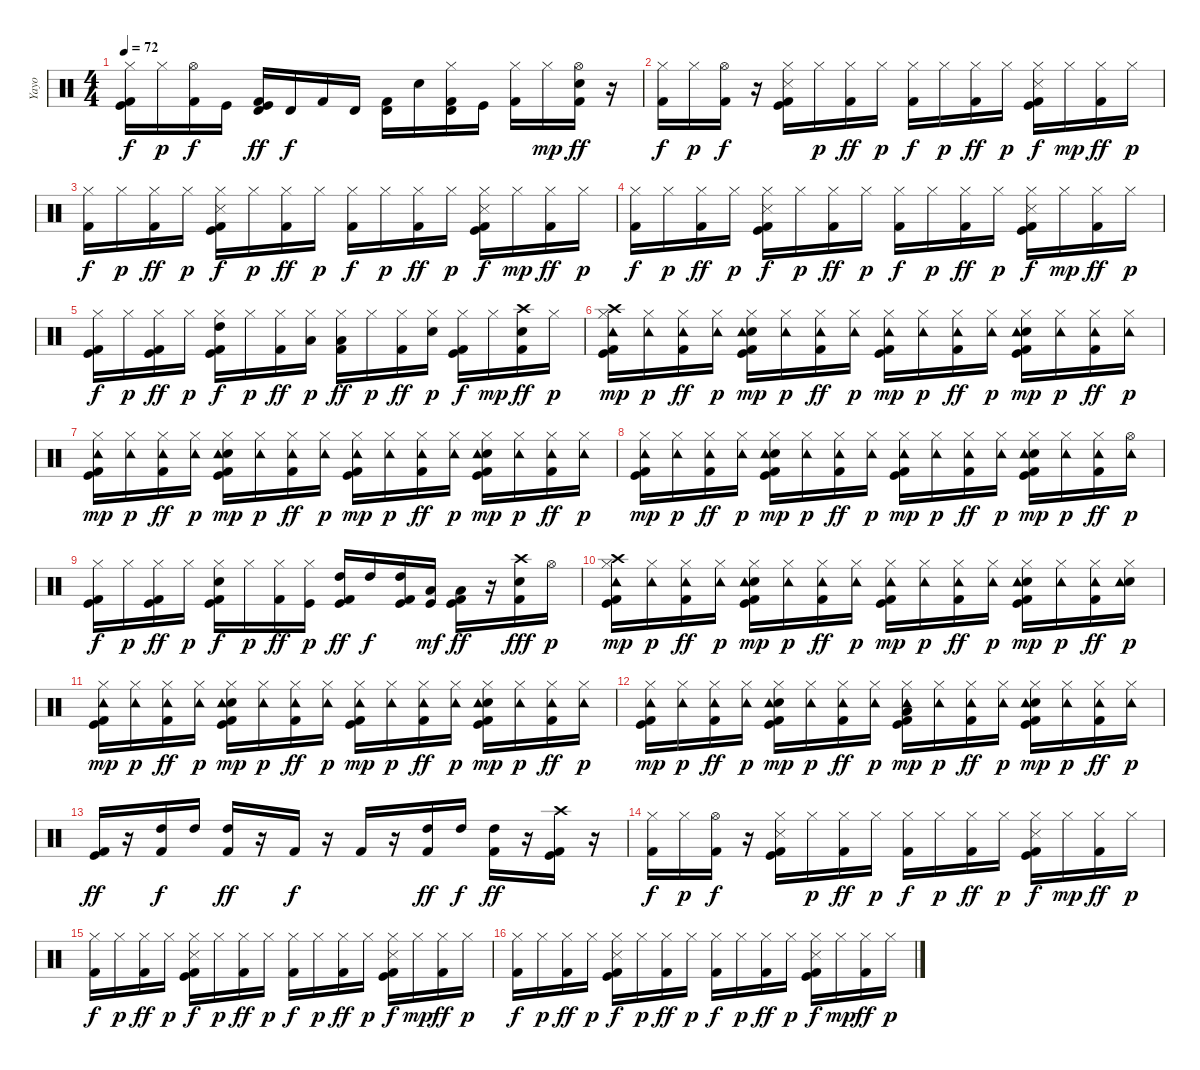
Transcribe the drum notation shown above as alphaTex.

\track ("Yayo" "Yayo") {instrument percussion}
\staff {score}
\articulation defaults
\ts (4 4)
\tempo 72
\clef neutral
\ks c
("Kick (hit)" "Hi-Hat (closed)" "Kick (hit) 2").16{dy f} "Hi-Hat (closed)".16{dy p} ("Hi-Hat (open)" "Kick (hit) 2").16{dy f} "Kick (hit)".16 ("Kick (hit)" "Timbale high (hit)" "Kick (hit) 2").16{dy ff} "Timbale high (hit)".16{dy f} "Kick (hit) 2".16 "Timbale high (hit)".16 ("Timbale high (hit)" "Kick (hit) 2").16 "Snare (hit) 2".16 ("Hi-Hat (closed)" "Timbale high (hit)" "Kick (hit) 2").16 "Kick (hit)".16 ("Hi-Hat (closed)" "Kick (hit) 2").16 "Hi-Hat (closed)".16{dy mp} ("Snare (hit) 2" "Hi-Hat (open)" "Kick (hit) 2").16{dy ff} r.16 |
("Hi-Hat (closed)" "Kick (hit) 2").16{dy f} "Hi-Hat (closed)".16{dy p} ("Hi-Hat (open)" "Kick (hit) 2").16{dy f} r.16 ("Kick (hit)" "Hi-Hat (closed)" "Snare (side stick) 3" "Kick (hit) 2").16 "Hi-Hat (closed)".16{dy p} ("Hi-Hat (closed)" "Kick (hit) 2").16{dy ff} "Hi-Hat (closed)".16{dy p} ("Hi-Hat (closed)" "Kick (hit) 2").16{dy f} "Hi-Hat (closed)".16{dy p} ("Hi-Hat (closed)" "Kick (hit) 2").16{dy ff} "Hi-Hat (closed)".16{dy p} ("Kick (hit)" "Hi-Hat (closed)" "Snare (side stick) 3" "Kick (hit) 2").16{dy f} "Hi-Hat (closed)".16{dy mp} ("Hi-Hat (closed)" "Kick (hit) 2").16{dy ff} "Hi-Hat (closed)".16{dy p} |
("Hi-Hat (closed)" "Kick (hit) 2").16{dy f} "Hi-Hat (closed)".16{dy p} ("Hi-Hat (closed)" "Kick (hit) 2").16{dy ff} "Hi-Hat (closed)".16{dy p} ("Kick (hit)" "Hi-Hat (closed)" "Snare (side stick) 3" "Kick (hit) 2").16{dy f} "Hi-Hat (closed)".16{dy p} ("Hi-Hat (closed)" "Kick (hit) 2").16{dy ff} "Hi-Hat (closed)".16{dy p} ("Hi-Hat (closed)" "Kick (hit) 2").16{dy f} "Hi-Hat (closed)".16{dy p} ("Hi-Hat (closed)" "Kick (hit) 2").16{dy ff} "Hi-Hat (closed)".16{dy p} ("Kick (hit)" "Hi-Hat (closed)" "Snare (side stick) 3" "Kick (hit) 2").16{dy f} "Hi-Hat (closed)".16{dy mp} ("Hi-Hat (closed)" "Kick (hit) 2").16{dy ff} "Hi-Hat (closed)".16{dy p} |
("Hi-Hat (closed)" "Kick (hit) 2").16{dy f} "Hi-Hat (closed)".16{dy p} ("Hi-Hat (closed)" "Kick (hit) 2").16{dy ff} "Hi-Hat (closed)".16{dy p} ("Kick (hit)" "Hi-Hat (closed)" "Snare (side stick) 3" "Kick (hit) 2").16{dy f} "Hi-Hat (closed)".16{dy p} ("Hi-Hat (closed)" "Kick (hit) 2").16{dy ff} "Hi-Hat (closed)".16{dy p} ("Hi-Hat (closed)" "Kick (hit) 2").16{dy f} "Hi-Hat (closed)".16{dy p} ("Hi-Hat (closed)" "Kick (hit) 2").16{dy ff} "Hi-Hat (closed)".16{dy p} ("Kick (hit)" "Hi-Hat (closed)" "Snare (side stick) 3" "Kick (hit) 2").16{dy f} "Hi-Hat (closed)".16{dy mp} ("Hi-Hat (closed)" "Kick (hit) 2").16{dy ff} "Hi-Hat (closed)".16{dy p} |
("Kick (hit)" "Hi-Hat (closed)" "Kick (hit) 2").16{dy f} "Hi-Hat (closed)".16{dy p} ("Kick (hit)" "Hi-Hat (closed)" "Kick (hit) 2").16{dy ff} "Hi-Hat (closed)".16{dy p} ("Kick (hit)" "Hi-Hat (closed)" "High Tom (hit)" "Kick (hit) 2").16{dy f} "Hi-Hat (closed)".16{dy p} ("Hi-Hat (closed)" "Kick (hit) 2").16{dy ff} ("Hi-Hat (closed)" "Low Tom (hit)").16{dy p} ("Hi-Hat (closed)" "Low Floor Tom (hit)" "Kick (hit) 2").16{dy ff} "Hi-Hat (closed)".16{dy p} ("Hi-Hat (closed)" "Kick (hit) 2").16{dy ff} ("Snare (hit) 2" "Hi-Hat (closed)").16{dy p} ("Kick (hit)" "Hi-Hat (closed)" "Kick (hit) 2").16{dy f} "Hi-Hat (closed)".16{dy mp} ("Snare (hit) 2" "Crash high (hit)" "Kick (hit) 2").16{dy ff} "Hi-Hat (closed)".16{dy p} |
("Kick (hit)" "Hi-Hat (closed)" "Crash high (hit)" "Tambourine (hit)" "Kick (hit) 2").16{dy mp} ("Hi-Hat (closed)" "Tambourine (hit)").16{dy p} ("Hi-Hat (closed)" "Tambourine (hit)" "Kick (hit) 2").16{dy ff} ("Hi-Hat (closed)" "Tambourine (hit)").16{dy p} ("Kick (hit)" "Snare (hit) 2" "Hi-Hat (closed)" "Tambourine (hit)" "Kick (hit) 2").16{dy mp} ("Hi-Hat (closed)" "Tambourine (hit)").16{dy p} ("Hi-Hat (closed)" "Tambourine (hit)" "Kick (hit) 2").16{dy ff} ("Hi-Hat (closed)" "Tambourine (hit)").16{dy p} ("Kick (hit)" "Hi-Hat (closed)" "Tambourine (hit)" "Kick (hit) 2").16{dy mp} ("Hi-Hat (closed)" "Tambourine (hit)").16{dy p} ("Hi-Hat (closed)" "Tambourine (hit)" "Kick (hit) 2").16{dy ff} ("Hi-Hat (closed)" "Tambourine (hit)").16{dy p} ("Kick (hit)" "Snare (hit) 2" "Hi-Hat (closed)" "Tambourine (hit)" "Kick (hit) 2").16{dy mp} ("Hi-Hat (closed)" "Tambourine (hit)").16{dy p} ("Hi-Hat (closed)" "Tambourine (hit)" "Kick (hit) 2").16{dy ff} ("Hi-Hat (closed)" "Tambourine (hit)").16{dy p} |
("Kick (hit)" "Hi-Hat (closed)" "Tambourine (hit)" "Kick (hit) 2").16{dy mp} ("Hi-Hat (closed)" "Tambourine (hit)").16{dy p} ("Hi-Hat (closed)" "Tambourine (hit)" "Kick (hit) 2").16{dy ff} ("Hi-Hat (closed)" "Tambourine (hit)").16{dy p} ("Kick (hit)" "Snare (hit) 2" "Hi-Hat (closed)" "Tambourine (hit)" "Kick (hit) 2").16{dy mp} ("Hi-Hat (closed)" "Tambourine (hit)").16{dy p} ("Hi-Hat (closed)" "Tambourine (hit)" "Kick (hit) 2").16{dy ff} ("Hi-Hat (closed)" "Tambourine (hit)").16{dy p} ("Kick (hit)" "Hi-Hat (closed)" "Tambourine (hit)" "Kick (hit) 2").16{dy mp} ("Hi-Hat (closed)" "Tambourine (hit)").16{dy p} ("Hi-Hat (closed)" "Tambourine (hit)" "Kick (hit) 2").16{dy ff} ("Hi-Hat (closed)" "Tambourine (hit)").16{dy p} ("Kick (hit)" "Snare (hit) 2" "Hi-Hat (closed)" "Tambourine (hit)" "Kick (hit) 2").16{dy mp} ("Hi-Hat (closed)" "Tambourine (hit)").16{dy p} ("Hi-Hat (closed)" "Tambourine (hit)" "Kick (hit) 2").16{dy ff} ("Hi-Hat (closed)" "Tambourine (hit)").16{dy p} |
("Kick (hit)" "Hi-Hat (closed)" "Tambourine (hit)" "Kick (hit) 2").16{dy mp} ("Hi-Hat (closed)" "Tambourine (hit)").16{dy p} ("Hi-Hat (closed)" "Tambourine (hit)" "Kick (hit) 2").16{dy ff} ("Hi-Hat (closed)" "Tambourine (hit)").16{dy p} ("Kick (hit)" "Snare (hit) 2" "Hi-Hat (closed)" "Tambourine (hit)" "Kick (hit) 2").16{dy mp} ("Hi-Hat (closed)" "Tambourine (hit)").16{dy p} ("Hi-Hat (closed)" "Tambourine (hit)" "Kick (hit) 2").16{dy ff} ("Hi-Hat (closed)" "Tambourine (hit)").16{dy p} ("Kick (hit)" "Hi-Hat (closed)" "Tambourine (hit)" "Kick (hit) 2").16{dy mp} ("Hi-Hat (closed)" "Tambourine (hit)").16{dy p} ("Hi-Hat (closed)" "Tambourine (hit)" "Kick (hit) 2").16{dy ff} ("Hi-Hat (closed)" "Tambourine (hit)").16{dy p} ("Kick (hit)" "Snare (hit) 2" "Hi-Hat (closed)" "Tambourine (hit)" "Kick (hit) 2").16{dy mp} ("Hi-Hat (closed)" "Tambourine (hit)").16{dy p} ("Hi-Hat (closed)" "Tambourine (hit)" "Kick (hit) 2").16{dy ff} ("Hi-Hat (open)" "Tambourine (hit)").16{dy p} |
("Kick (hit)" "Hi-Hat (closed)" "Kick (hit) 2").16{dy f} "Hi-Hat (closed)".16{dy p} ("Kick (hit)" "Hi-Hat (closed)" "Kick (hit) 2").16{dy ff} "Hi-Hat (closed)".16{dy p} ("Kick (hit)" "Snare (hit) 2" "Hi-Hat (closed)" "Kick (hit) 2").16{dy f} "Hi-Hat (closed)".16{dy p} ("Hi-Hat (closed)" "Kick (hit) 2").16{dy ff} ("Kick (hit)" "Hi-Hat (closed)").16{dy p} ("Kick (hit)" "High Tom (hit)" "Kick (hit) 2").16{dy ff} "High Tom (hit)".16{dy f} ("Kick (hit)" "High Tom (hit)" "Kick (hit) 2").16 ("Kick (hit)" "Low Tom (hit)").16{dy mf} ("Kick (hit)" "Low Tom (hit)" "Kick (hit) 2").16{dy ff} r.16 ("Snare (hit) 2" "Crash high (hit)" "Kick (hit) 2").16{dy fff} "Hi-Hat (open)".16{dy p} |
("Kick (hit)" "Hi-Hat (closed)" "Crash high (hit)" "Tambourine (hit)" "Kick (hit) 2").16{dy mp} ("Hi-Hat (closed)" "Tambourine (hit)").16{dy p} ("Hi-Hat (closed)" "Tambourine (hit)" "Kick (hit) 2").16{dy ff} ("Hi-Hat (closed)" "Tambourine (hit)").16{dy p} ("Kick (hit)" "Snare (hit) 2" "Hi-Hat (closed)" "Tambourine (hit)" "Kick (hit) 2").16{dy mp} ("Hi-Hat (closed)" "Tambourine (hit)").16{dy p} ("Hi-Hat (closed)" "Tambourine (hit)" "Kick (hit) 2").16{dy ff} ("Hi-Hat (closed)" "Tambourine (hit)").16{dy p} ("Kick (hit)" "Hi-Hat (closed)" "Tambourine (hit)" "Kick (hit) 2").16{dy mp} ("Hi-Hat (closed)" "Tambourine (hit)").16{dy p} ("Hi-Hat (closed)" "Tambourine (hit)" "Kick (hit) 2").16{dy ff} ("Hi-Hat (closed)" "Tambourine (hit)").16{dy p} ("Kick (hit)" "Snare (hit) 2" "Hi-Hat (closed)" "Tambourine (hit)" "Kick (hit) 2").16{dy mp} ("Hi-Hat (closed)" "Tambourine (hit)").16{dy p} ("Hi-Hat (closed)" "Tambourine (hit)" "Kick (hit) 2").16{dy ff} ("Snare (hit) 2" "Hi-Hat (closed)" "Tambourine (hit)").16{dy p} |
("Kick (hit)" "Hi-Hat (closed)" "Tambourine (hit)" "Kick (hit) 2").16{dy mp} ("Hi-Hat (closed)" "Tambourine (hit)").16{dy p} ("Hi-Hat (closed)" "Tambourine (hit)" "Kick (hit) 2").16{dy ff} ("Hi-Hat (closed)" "Tambourine (hit)").16{dy p} ("Kick (hit)" "Snare (hit) 2" "Hi-Hat (closed)" "Tambourine (hit)" "Kick (hit) 2").16{dy mp} ("Hi-Hat (closed)" "Tambourine (hit)").16{dy p} ("Hi-Hat (closed)" "Tambourine (hit)" "Kick (hit) 2").16{dy ff} ("Hi-Hat (closed)" "Tambourine (hit)").16{dy p} ("Kick (hit)" "Hi-Hat (closed)" "Tambourine (hit)" "Kick (hit) 2").16{dy mp} ("Hi-Hat (closed)" "Tambourine (hit)").16{dy p} ("Hi-Hat (closed)" "Tambourine (hit)" "Kick (hit) 2").16{dy ff} ("Hi-Hat (closed)" "Tambourine (hit)").16{dy p} ("Kick (hit)" "Snare (hit) 2" "Hi-Hat (closed)" "Tambourine (hit)" "Kick (hit) 2").16{dy mp} ("Hi-Hat (closed)" "Tambourine (hit)").16{dy p} ("Hi-Hat (closed)" "Tambourine (hit)" "Kick (hit) 2").16{dy ff} ("Hi-Hat (closed)" "Tambourine (hit)").16{dy p} |
("Kick (hit)" "Hi-Hat (closed)" "Tambourine (hit)" "Kick (hit) 2").16{dy mp} ("Hi-Hat (closed)" "Tambourine (hit)").16{dy p} ("Hi-Hat (closed)" "Tambourine (hit)" "Kick (hit) 2").16{dy ff} ("Hi-Hat (closed)" "Tambourine (hit)").16{dy p} ("Kick (hit)" "Snare (hit) 2" "Hi-Hat (closed)" "Tambourine (hit)" "Kick (hit) 2").16{dy mp} ("Hi-Hat (closed)" "Tambourine (hit)").16{dy p} ("Hi-Hat (closed)" "Tambourine (hit)" "Kick (hit) 2").16{dy ff} ("Hi-Hat (closed)" "Tambourine (hit)").16{dy p} ("Kick (hit)" "Hi-Hat (closed)" "Low Tom (hit)" "Tambourine (hit)" "Kick (hit) 2").16{dy mp} ("Hi-Hat (closed)" "Tambourine (hit)").16{dy p} ("Hi-Hat (closed)" "Tambourine (hit)" "Kick (hit) 2").16{dy ff} ("Hi-Hat (closed)" "Tambourine (hit)").16{dy p} ("Kick (hit)" "Snare (hit) 2" "Hi-Hat (closed)" "Tambourine (hit)" "Kick (hit) 2").16{dy mp} ("Hi-Hat (closed)" "Tambourine (hit)").16{dy p} ("Hi-Hat (closed)" "Tambourine (hit)" "Kick (hit) 2").16{dy ff} ("Hi-Hat (closed)" "Tambourine (hit)").16{dy p} |
("Kick (hit)" "Kick (hit) 2").16{dy ff} r.16 ("High Tom (hit)" "Kick (hit) 2").16{dy f} "High Tom (hit)".16 ("High Tom (hit)" "Kick (hit) 2").16{dy ff} r.16 "Kick (hit) 2".16{dy f} r.16 "Kick (hit) 2".16 r.16 ("High Tom (hit)" "Kick (hit) 2").16{dy ff} "High Tom (hit)".16{dy f} ("High Tom (hit)" "Kick (hit) 2").16{dy ff} r.16 ("Kick (hit)" "Crash high (hit)" "Kick (hit) 2").16 r.16 |
("Hi-Hat (closed)" "Kick (hit) 2").16{dy f} "Hi-Hat (closed)".16{dy p} ("Hi-Hat (open)" "Kick (hit) 2").16{dy f} r.16 ("Kick (hit)" "Hi-Hat (closed)" "Snare (side stick) 3" "Kick (hit) 2").16 "Hi-Hat (closed)".16{dy p} ("Hi-Hat (closed)" "Kick (hit) 2").16{dy ff} "Hi-Hat (closed)".16{dy p} ("Hi-Hat (closed)" "Kick (hit) 2").16{dy f} "Hi-Hat (closed)".16{dy p} ("Hi-Hat (closed)" "Kick (hit) 2").16{dy ff} "Hi-Hat (closed)".16{dy p} ("Kick (hit)" "Hi-Hat (closed)" "Snare (side stick) 3" "Kick (hit) 2").16{dy f} "Hi-Hat (closed)".16{dy mp} ("Hi-Hat (closed)" "Kick (hit) 2").16{dy ff} "Hi-Hat (closed)".16{dy p} |
("Hi-Hat (closed)" "Kick (hit) 2").16{dy f} "Hi-Hat (closed)".16{dy p} ("Hi-Hat (closed)" "Kick (hit) 2").16{dy ff} "Hi-Hat (closed)".16{dy p} ("Kick (hit)" "Hi-Hat (closed)" "Snare (side stick) 3" "Kick (hit) 2").16{dy f} "Hi-Hat (closed)".16{dy p} ("Hi-Hat (closed)" "Kick (hit) 2").16{dy ff} "Hi-Hat (closed)".16{dy p} ("Hi-Hat (closed)" "Kick (hit) 2").16{dy f} "Hi-Hat (closed)".16{dy p} ("Hi-Hat (closed)" "Kick (hit) 2").16{dy ff} "Hi-Hat (closed)".16{dy p} ("Kick (hit)" "Hi-Hat (closed)" "Snare (side stick) 3" "Kick (hit) 2").16{dy f} "Hi-Hat (closed)".16{dy mp} ("Hi-Hat (closed)" "Kick (hit) 2").16{dy ff} "Hi-Hat (closed)".16{dy p} |
("Hi-Hat (closed)" "Kick (hit) 2").16{dy f} "Hi-Hat (closed)".16{dy p} ("Hi-Hat (closed)" "Kick (hit) 2").16{dy ff} "Hi-Hat (closed)".16{dy p} ("Kick (hit)" "Hi-Hat (closed)" "Snare (side stick) 3" "Kick (hit) 2").16{dy f} "Hi-Hat (closed)".16{dy p} ("Hi-Hat (closed)" "Kick (hit) 2").16{dy ff} "Hi-Hat (closed)".16{dy p} ("Hi-Hat (closed)" "Kick (hit) 2").16{dy f} "Hi-Hat (closed)".16{dy p} ("Hi-Hat (closed)" "Kick (hit) 2").16{dy ff} "Hi-Hat (closed)".16{dy p} ("Kick (hit)" "Hi-Hat (closed)" "Snare (side stick) 3" "Kick (hit) 2").16{dy f} "Hi-Hat (closed)".16{dy mp} ("Hi-Hat (closed)" "Kick (hit) 2").16{dy ff} "Hi-Hat (closed)".16{dy p}
